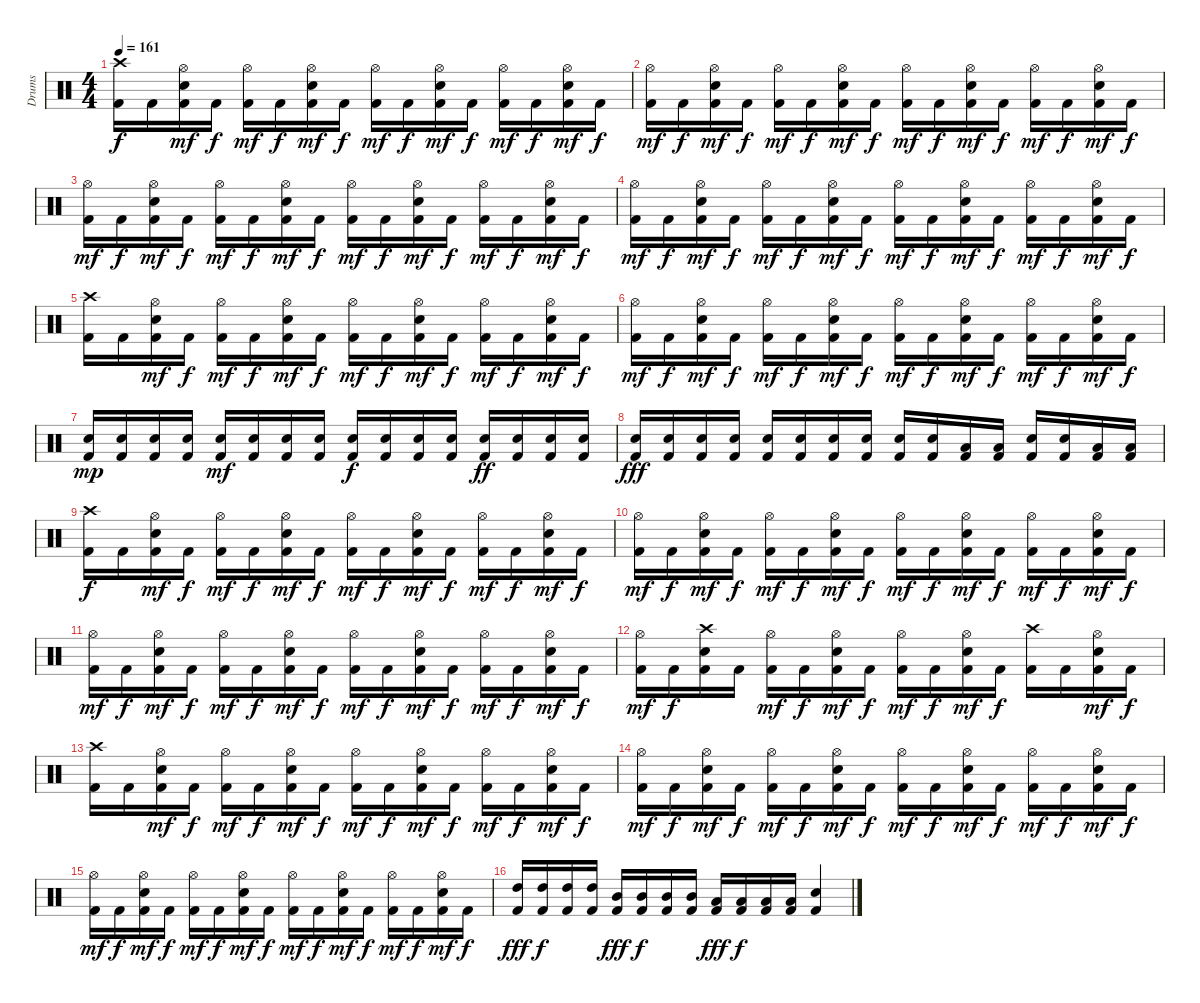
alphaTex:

\track ("Drums" "Drums") {instrument percussion}
\staff {score}
\articulation defaults
\ts (4 4)
\tempo 161
\clef neutral
\ks c
("Crash high (hit)" "Kick (hit) 2").16{dy f} "Kick (hit) 2".16 ("Hi-Hat (open)" "Electric Snare (hit)" "Kick (hit) 2").16{dy mf} "Kick (hit) 2".16{dy f} ("Hi-Hat (open)" "Kick (hit) 2").16{dy mf} "Kick (hit) 2".16{dy f} ("Hi-Hat (open)" "Electric Snare (hit)" "Kick (hit) 2").16{dy mf} "Kick (hit) 2".16{dy f} ("Hi-Hat (open)" "Kick (hit) 2").16{dy mf} "Kick (hit) 2".16{dy f} ("Hi-Hat (open)" "Electric Snare (hit)" "Kick (hit) 2").16{dy mf} "Kick (hit) 2".16{dy f} ("Hi-Hat (open)" "Kick (hit) 2").16{dy mf} "Kick (hit) 2".16{dy f} ("Hi-Hat (open)" "Electric Snare (hit)" "Kick (hit) 2").16{dy mf} "Kick (hit) 2".16{dy f} |
("Hi-Hat (open)" "Kick (hit) 2").16{dy mf} "Kick (hit) 2".16{dy f} ("Hi-Hat (open)" "Electric Snare (hit)" "Kick (hit) 2").16{dy mf} "Kick (hit) 2".16{dy f} ("Hi-Hat (open)" "Kick (hit) 2").16{dy mf} "Kick (hit) 2".16{dy f} ("Hi-Hat (open)" "Electric Snare (hit)" "Kick (hit) 2").16{dy mf} "Kick (hit) 2".16{dy f} ("Hi-Hat (open)" "Kick (hit) 2").16{dy mf} "Kick (hit) 2".16{dy f} ("Hi-Hat (open)" "Electric Snare (hit)" "Kick (hit) 2").16{dy mf} "Kick (hit) 2".16{dy f} ("Hi-Hat (open)" "Kick (hit) 2").16{dy mf} "Kick (hit) 2".16{dy f} ("Hi-Hat (open)" "Electric Snare (hit)" "Kick (hit) 2").16{dy mf} "Kick (hit) 2".16{dy f} |
("Hi-Hat (open)" "Kick (hit) 2").16{dy mf} "Kick (hit) 2".16{dy f} ("Hi-Hat (open)" "Electric Snare (hit)" "Kick (hit) 2").16{dy mf} "Kick (hit) 2".16{dy f} ("Hi-Hat (open)" "Kick (hit) 2").16{dy mf} "Kick (hit) 2".16{dy f} ("Hi-Hat (open)" "Electric Snare (hit)" "Kick (hit) 2").16{dy mf} "Kick (hit) 2".16{dy f} ("Hi-Hat (open)" "Kick (hit) 2").16{dy mf} "Kick (hit) 2".16{dy f} ("Hi-Hat (open)" "Electric Snare (hit)" "Kick (hit) 2").16{dy mf} "Kick (hit) 2".16{dy f} ("Hi-Hat (open)" "Kick (hit) 2").16{dy mf} "Kick (hit) 2".16{dy f} ("Hi-Hat (open)" "Electric Snare (hit)" "Kick (hit) 2").16{dy mf} "Kick (hit) 2".16{dy f} |
("Hi-Hat (open)" "Kick (hit) 2").16{dy mf} "Kick (hit) 2".16{dy f} ("Hi-Hat (open)" "Electric Snare (hit)" "Kick (hit) 2").16{dy mf} "Kick (hit) 2".16{dy f} ("Hi-Hat (open)" "Kick (hit) 2").16{dy mf} "Kick (hit) 2".16{dy f} ("Hi-Hat (open)" "Electric Snare (hit)" "Kick (hit) 2").16{dy mf} "Kick (hit) 2".16{dy f} ("Hi-Hat (open)" "Kick (hit) 2").16{dy mf} "Kick (hit) 2".16{dy f} ("Hi-Hat (open)" "Electric Snare (hit)" "Kick (hit) 2").16{dy mf} "Kick (hit) 2".16{dy f} ("Hi-Hat (open)" "Kick (hit) 2").16{dy mf} "Kick (hit) 2".16{dy f} ("Hi-Hat (open)" "Electric Snare (hit)" "Kick (hit) 2").16{dy mf} "Kick (hit) 2".16{dy f} |
("Crash high (hit)" "Kick (hit) 2").16 "Kick (hit) 2".16 ("Hi-Hat (open)" "Electric Snare (hit)" "Kick (hit) 2").16{dy mf} "Kick (hit) 2".16{dy f} ("Hi-Hat (open)" "Kick (hit) 2").16{dy mf} "Kick (hit) 2".16{dy f} ("Hi-Hat (open)" "Electric Snare (hit)" "Kick (hit) 2").16{dy mf} "Kick (hit) 2".16{dy f} ("Hi-Hat (open)" "Kick (hit) 2").16{dy mf} "Kick (hit) 2".16{dy f} ("Hi-Hat (open)" "Electric Snare (hit)" "Kick (hit) 2").16{dy mf} "Kick (hit) 2".16{dy f} ("Hi-Hat (open)" "Kick (hit) 2").16{dy mf} "Kick (hit) 2".16{dy f} ("Hi-Hat (open)" "Electric Snare (hit)" "Kick (hit) 2").16{dy mf} "Kick (hit) 2".16{dy f} |
("Hi-Hat (open)" "Kick (hit) 2").16{dy mf} "Kick (hit) 2".16{dy f} ("Hi-Hat (open)" "Electric Snare (hit)" "Kick (hit) 2").16{dy mf} "Kick (hit) 2".16{dy f} ("Hi-Hat (open)" "Kick (hit) 2").16{dy mf} "Kick (hit) 2".16{dy f} ("Hi-Hat (open)" "Electric Snare (hit)" "Kick (hit) 2").16{dy mf} "Kick (hit) 2".16{dy f} ("Hi-Hat (open)" "Kick (hit) 2").16{dy mf} "Kick (hit) 2".16{dy f} ("Hi-Hat (open)" "Electric Snare (hit)" "Kick (hit) 2").16{dy mf} "Kick (hit) 2".16{dy f} ("Hi-Hat (open)" "Kick (hit) 2").16{dy mf} "Kick (hit) 2".16{dy f} ("Hi-Hat (open)" "Electric Snare (hit)" "Kick (hit) 2").16{dy mf} "Kick (hit) 2".16{dy f} |
("Electric Snare (hit)" "Kick (hit) 2").16{dy mp} ("Electric Snare (hit)" "Kick (hit) 2").16 ("Electric Snare (hit)" "Kick (hit) 2").16 ("Electric Snare (hit)" "Kick (hit) 2").16 ("Electric Snare (hit)" "Kick (hit) 2").16{dy mf} ("Electric Snare (hit)" "Kick (hit) 2").16 ("Electric Snare (hit)" "Kick (hit) 2").16 ("Electric Snare (hit)" "Kick (hit) 2").16 ("Electric Snare (hit)" "Kick (hit) 2").16{dy f} ("Electric Snare (hit)" "Kick (hit) 2").16 ("Electric Snare (hit)" "Kick (hit) 2").16 ("Electric Snare (hit)" "Kick (hit) 2").16 ("Electric Snare (hit)" "Kick (hit) 2").16{dy ff} ("Electric Snare (hit)" "Kick (hit) 2").16 ("Electric Snare (hit)" "Kick (hit) 2").16 ("Electric Snare (hit)" "Kick (hit) 2").16 |
("Electric Snare (hit)" "Kick (hit) 2").16{dy fff} ("Electric Snare (hit)" "Kick (hit) 2").16 ("Electric Snare (hit)" "Kick (hit) 2").16 ("Electric Snare (hit)" "Kick (hit) 2").16 ("Electric Snare (hit)" "Kick (hit) 2").16 ("Electric Snare (hit)" "Kick (hit) 2").16 ("Electric Snare (hit)" "Kick (hit) 2").16 ("Electric Snare (hit)" "Kick (hit) 2").16 ("Electric Snare (hit)" "Kick (hit) 2").16 ("Electric Snare (hit)" "Kick (hit) 2").16 ("Low Floor Tom (hit)" "Kick (hit) 2").16 ("Low Floor Tom (hit)" "Kick (hit) 2").16 ("Electric Snare (hit)" "Kick (hit) 2").16 ("Electric Snare (hit)" "Kick (hit) 2").16 ("Low Floor Tom (hit)" "Kick (hit) 2").16 ("Low Floor Tom (hit)" "Kick (hit) 2").16 |
("Crash high (hit)" "Kick (hit) 2").16{dy f} "Kick (hit) 2".16 ("Hi-Hat (open)" "Electric Snare (hit)" "Kick (hit) 2").16{dy mf} "Kick (hit) 2".16{dy f} ("Hi-Hat (open)" "Kick (hit) 2").16{dy mf} "Kick (hit) 2".16{dy f} ("Hi-Hat (open)" "Electric Snare (hit)" "Kick (hit) 2").16{dy mf} "Kick (hit) 2".16{dy f} ("Hi-Hat (open)" "Kick (hit) 2").16{dy mf} "Kick (hit) 2".16{dy f} ("Hi-Hat (open)" "Electric Snare (hit)" "Kick (hit) 2").16{dy mf} "Kick (hit) 2".16{dy f} ("Hi-Hat (open)" "Kick (hit) 2").16{dy mf} "Kick (hit) 2".16{dy f} ("Hi-Hat (open)" "Electric Snare (hit)" "Kick (hit) 2").16{dy mf} "Kick (hit) 2".16{dy f} |
("Hi-Hat (open)" "Kick (hit) 2").16{dy mf} "Kick (hit) 2".16{dy f} ("Hi-Hat (open)" "Electric Snare (hit)" "Kick (hit) 2").16{dy mf} "Kick (hit) 2".16{dy f} ("Hi-Hat (open)" "Kick (hit) 2").16{dy mf} "Kick (hit) 2".16{dy f} ("Hi-Hat (open)" "Electric Snare (hit)" "Kick (hit) 2").16{dy mf} "Kick (hit) 2".16{dy f} ("Hi-Hat (open)" "Kick (hit) 2").16{dy mf} "Kick (hit) 2".16{dy f} ("Hi-Hat (open)" "Electric Snare (hit)" "Kick (hit) 2").16{dy mf} "Kick (hit) 2".16{dy f} ("Hi-Hat (open)" "Kick (hit) 2").16{dy mf} "Kick (hit) 2".16{dy f} ("Hi-Hat (open)" "Electric Snare (hit)" "Kick (hit) 2").16{dy mf} "Kick (hit) 2".16{dy f} |
("Hi-Hat (open)" "Kick (hit) 2").16{dy mf} "Kick (hit) 2".16{dy f} ("Hi-Hat (open)" "Electric Snare (hit)" "Kick (hit) 2").16{dy mf} "Kick (hit) 2".16{dy f} ("Hi-Hat (open)" "Kick (hit) 2").16{dy mf} "Kick (hit) 2".16{dy f} ("Hi-Hat (open)" "Electric Snare (hit)" "Kick (hit) 2").16{dy mf} "Kick (hit) 2".16{dy f} ("Hi-Hat (open)" "Kick (hit) 2").16{dy mf} "Kick (hit) 2".16{dy f} ("Hi-Hat (open)" "Electric Snare (hit)" "Kick (hit) 2").16{dy mf} "Kick (hit) 2".16{dy f} ("Hi-Hat (open)" "Kick (hit) 2").16{dy mf} "Kick (hit) 2".16{dy f} ("Hi-Hat (open)" "Electric Snare (hit)" "Kick (hit) 2").16{dy mf} "Kick (hit) 2".16{dy f} |
("Hi-Hat (open)" "Kick (hit) 2").16{dy mf} "Kick (hit) 2".16{dy f} ("Crash high (hit)" "Electric Snare (hit)" "Kick (hit) 2").16 "Kick (hit) 2".16 ("Hi-Hat (open)" "Kick (hit) 2").16{dy mf} "Kick (hit) 2".16{dy f} ("Hi-Hat (open)" "Electric Snare (hit)" "Kick (hit) 2").16{dy mf} "Kick (hit) 2".16{dy f} ("Hi-Hat (open)" "Kick (hit) 2").16{dy mf} "Kick (hit) 2".16{dy f} ("Hi-Hat (open)" "Electric Snare (hit)" "Kick (hit) 2").16{dy mf} "Kick (hit) 2".16{dy f} ("Crash high (hit)" "Kick (hit) 2").16 "Kick (hit) 2".16 ("Hi-Hat (open)" "Electric Snare (hit)" "Kick (hit) 2").16{dy mf} "Kick (hit) 2".16{dy f} |
("Crash high (hit)" "Kick (hit) 2").16 "Kick (hit) 2".16 ("Hi-Hat (open)" "Electric Snare (hit)" "Kick (hit) 2").16{dy mf} "Kick (hit) 2".16{dy f} ("Hi-Hat (open)" "Kick (hit) 2").16{dy mf} "Kick (hit) 2".16{dy f} ("Hi-Hat (open)" "Electric Snare (hit)" "Kick (hit) 2").16{dy mf} "Kick (hit) 2".16{dy f} ("Hi-Hat (open)" "Kick (hit) 2").16{dy mf} "Kick (hit) 2".16{dy f} ("Hi-Hat (open)" "Electric Snare (hit)" "Kick (hit) 2").16{dy mf} "Kick (hit) 2".16{dy f} ("Hi-Hat (open)" "Kick (hit) 2").16{dy mf} "Kick (hit) 2".16{dy f} ("Hi-Hat (open)" "Electric Snare (hit)" "Kick (hit) 2").16{dy mf} "Kick (hit) 2".16{dy f} |
("Hi-Hat (open)" "Kick (hit) 2").16{dy mf} "Kick (hit) 2".16{dy f} ("Hi-Hat (open)" "Electric Snare (hit)" "Kick (hit) 2").16{dy mf} "Kick (hit) 2".16{dy f} ("Hi-Hat (open)" "Kick (hit) 2").16{dy mf} "Kick (hit) 2".16{dy f} ("Hi-Hat (open)" "Electric Snare (hit)" "Kick (hit) 2").16{dy mf} "Kick (hit) 2".16{dy f} ("Hi-Hat (open)" "Kick (hit) 2").16{dy mf} "Kick (hit) 2".16{dy f} ("Hi-Hat (open)" "Electric Snare (hit)" "Kick (hit) 2").16{dy mf} "Kick (hit) 2".16{dy f} ("Hi-Hat (open)" "Kick (hit) 2").16{dy mf} "Kick (hit) 2".16{dy f} ("Hi-Hat (open)" "Electric Snare (hit)" "Kick (hit) 2").16{dy mf} "Kick (hit) 2".16{dy f} |
("Hi-Hat (open)" "Kick (hit) 2").16{dy mf} "Kick (hit) 2".16{dy f} ("Hi-Hat (open)" "Electric Snare (hit)" "Kick (hit) 2").16{dy mf} "Kick (hit) 2".16{dy f} ("Hi-Hat (open)" "Kick (hit) 2").16{dy mf} "Kick (hit) 2".16{dy f} ("Hi-Hat (open)" "Electric Snare (hit)" "Kick (hit) 2").16{dy mf} "Kick (hit) 2".16{dy f} ("Hi-Hat (open)" "Kick (hit) 2").16{dy mf} "Kick (hit) 2".16{dy f} ("Hi-Hat (open)" "Electric Snare (hit)" "Kick (hit) 2").16{dy mf} "Kick (hit) 2".16{dy f} ("Hi-Hat (open)" "Kick (hit) 2").16{dy mf} "Kick (hit) 2".16{dy f} ("Hi-Hat (open)" "Electric Snare (hit)" "Kick (hit) 2").16{dy mf} "Kick (hit) 2".16{dy f} |
("High Tom (hit)" "Kick (hit) 2").16{dy fff} ("High Tom (hit)" "Kick (hit) 2").16{dy f} ("High Tom (hit)" "Kick (hit) 2").16 ("High Tom (hit)" "Kick (hit) 2").16 ("Mid Tom (hit)" "Kick (hit) 2").16{dy fff} ("Mid Tom (hit)" "Kick (hit) 2").16{dy f} ("Mid Tom (hit)" "Kick (hit) 2").16 ("Mid Tom (hit)" "Kick (hit) 2").16 ("Low Tom (hit)" "Kick (hit) 2").16{dy fff} ("Low Tom (hit)" "Kick (hit) 2").16{dy f} ("Low Tom (hit)" "Kick (hit) 2").16 ("Low Tom (hit)" "Kick (hit) 2").16 ("Electric Snare (hit)" "Kick (hit) 2").4
